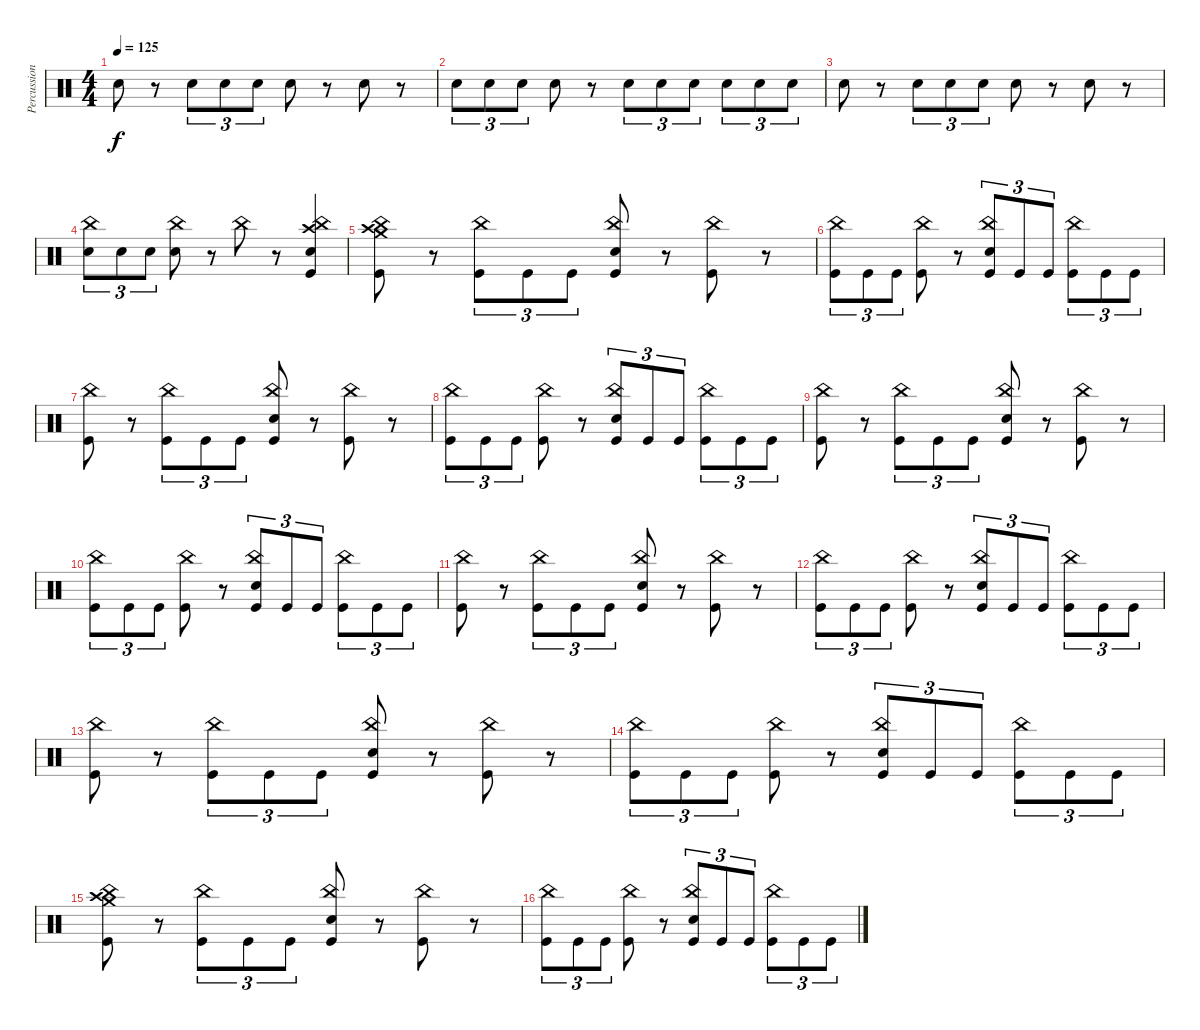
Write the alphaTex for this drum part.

\track ("Percussion" "Percussion") {instrument percussion}
\staff {score}
\articulation defaults
\ts (4 4)
\tempo 125
\clef neutral
\ks c "Electric Snare (hit)".8{dy f}
r.8 "Electric Snare (hit)".8{tu (3 2)} "Electric Snare (hit)".8{tu (3 2)} "Electric Snare (hit)".8{tu (3 2)} "Electric Snare (hit)".8 r.8 "Electric Snare (hit)".8 r.8 |
"Electric Snare (hit)".8{tu (3 2)} "Electric Snare (hit)".8{tu (3 2)} "Electric Snare (hit)".8{tu (3 2)} "Electric Snare (hit)".8 r.8 "Electric Snare (hit)".8{tu (3 2)} "Electric Snare (hit)".8{tu (3 2)} "Electric Snare (hit)".8{tu (3 2)} "Electric Snare (hit)".8{tu (3 2)} "Electric Snare (hit)".8{tu (3 2)} "Electric Snare (hit)".8{tu (3 2)} |
"Electric Snare (hit)".8 r.8 "Electric Snare (hit)".8{tu (3 2)} "Electric Snare (hit)".8{tu (3 2)} "Electric Snare (hit)".8{tu (3 2)} "Electric Snare (hit)".8 r.8 "Electric Snare (hit)".8 r.8 |
("China (hit)" "Electric Snare (hit)").8{tu (3 2)} "Electric Snare (hit)".8{tu (3 2)} "Electric Snare (hit)".8{tu (3 2)} ("China (hit)" "Electric Snare (hit)").8 r.8 "China (hit)".8 r.8 ("Crash high (hit)" "China (hit)" "Electric Snare (hit)" "Kick (hit)").4 |
("Crash medium (hit)" "Crash high (hit)" "China (hit)" "Kick (hit)").8 r.8 ("China (hit)" "Kick (hit)").8{tu (3 2)} "Kick (hit)".8{tu (3 2)} "Kick (hit)".8{tu (3 2)} ("China (hit)" "Electric Snare (hit)" "Kick (hit)").8 r.8 ("China (hit)" "Kick (hit)").8 r.8 |
("China (hit)" "Kick (hit)").8{tu (3 2)} "Kick (hit)".8{tu (3 2)} "Kick (hit)".8{tu (3 2)} ("China (hit)" "Kick (hit)").8 r.8 ("China (hit)" "Electric Snare (hit)" "Kick (hit)").8{tu (3 2)} "Kick (hit)".8{tu (3 2)} "Kick (hit)".8{tu (3 2)} ("China (hit)" "Kick (hit)").8{tu (3 2)} "Kick (hit)".8{tu (3 2)} "Kick (hit)".8{tu (3 2)} |
("China (hit)" "Kick (hit)").8 r.8 ("China (hit)" "Kick (hit)").8{tu (3 2)} "Kick (hit)".8{tu (3 2)} "Kick (hit)".8{tu (3 2)} ("China (hit)" "Electric Snare (hit)" "Kick (hit)").8 r.8 ("China (hit)" "Kick (hit)").8 r.8 |
("China (hit)" "Kick (hit)").8{tu (3 2)} "Kick (hit)".8{tu (3 2)} "Kick (hit)".8{tu (3 2)} ("China (hit)" "Kick (hit)").8 r.8 ("China (hit)" "Electric Snare (hit)" "Kick (hit)").8{tu (3 2)} "Kick (hit)".8{tu (3 2)} "Kick (hit)".8{tu (3 2)} ("China (hit)" "Kick (hit)").8{tu (3 2)} "Kick (hit)".8{tu (3 2)} "Kick (hit)".8{tu (3 2)} |
("China (hit)" "Kick (hit)").8 r.8 ("China (hit)" "Kick (hit)").8{tu (3 2)} "Kick (hit)".8{tu (3 2)} "Kick (hit)".8{tu (3 2)} ("China (hit)" "Electric Snare (hit)" "Kick (hit)").8 r.8 ("China (hit)" "Kick (hit)").8 r.8 |
("China (hit)" "Kick (hit)").8{tu (3 2)} "Kick (hit)".8{tu (3 2)} "Kick (hit)".8{tu (3 2)} ("China (hit)" "Kick (hit)").8 r.8 ("China (hit)" "Electric Snare (hit)" "Kick (hit)").8{tu (3 2)} "Kick (hit)".8{tu (3 2)} "Kick (hit)".8{tu (3 2)} ("China (hit)" "Kick (hit)").8{tu (3 2)} "Kick (hit)".8{tu (3 2)} "Kick (hit)".8{tu (3 2)} |
("China (hit)" "Kick (hit)").8 r.8 ("China (hit)" "Kick (hit)").8{tu (3 2)} "Kick (hit)".8{tu (3 2)} "Kick (hit)".8{tu (3 2)} ("China (hit)" "Electric Snare (hit)" "Kick (hit)").8 r.8 ("China (hit)" "Kick (hit)").8 r.8 |
("China (hit)" "Kick (hit)").8{tu (3 2)} "Kick (hit)".8{tu (3 2)} "Kick (hit)".8{tu (3 2)} ("China (hit)" "Kick (hit)").8 r.8 ("China (hit)" "Electric Snare (hit)" "Kick (hit)").8{tu (3 2)} "Kick (hit)".8{tu (3 2)} "Kick (hit)".8{tu (3 2)} ("China (hit)" "Kick (hit)").8{tu (3 2)} "Kick (hit)".8{tu (3 2)} "Kick (hit)".8{tu (3 2)} |
("China (hit)" "Kick (hit)").8 r.8 ("China (hit)" "Kick (hit)").8{tu (3 2)} "Kick (hit)".8{tu (3 2)} "Kick (hit)".8{tu (3 2)} ("China (hit)" "Electric Snare (hit)" "Kick (hit)").8 r.8 ("China (hit)" "Kick (hit)").8 r.8 |
("China (hit)" "Kick (hit)").8{tu (3 2)} "Kick (hit)".8{tu (3 2)} "Kick (hit)".8{tu (3 2)} ("China (hit)" "Kick (hit)").8 r.8 ("China (hit)" "Electric Snare (hit)" "Kick (hit)").8{tu (3 2)} "Kick (hit)".8{tu (3 2)} "Kick (hit)".8{tu (3 2)} ("China (hit)" "Kick (hit)").8{tu (3 2)} "Kick (hit)".8{tu (3 2)} "Kick (hit)".8{tu (3 2)} |
("Crash medium (hit)" "Crash high (hit)" "China (hit)" "Kick (hit)").8 r.8 ("China (hit)" "Kick (hit)").8{tu (3 2)} "Kick (hit)".8{tu (3 2)} "Kick (hit)".8{tu (3 2)} ("China (hit)" "Electric Snare (hit)" "Kick (hit)").8 r.8 ("China (hit)" "Kick (hit)").8 r.8 |
("China (hit)" "Kick (hit)").8{tu (3 2)} "Kick (hit)".8{tu (3 2)} "Kick (hit)".8{tu (3 2)} ("China (hit)" "Kick (hit)").8 r.8 ("China (hit)" "Electric Snare (hit)" "Kick (hit)").8{tu (3 2)} "Kick (hit)".8{tu (3 2)} "Kick (hit)".8{tu (3 2)} ("China (hit)" "Kick (hit)").8{tu (3 2)} "Kick (hit)".8{tu (3 2)} "Kick (hit)".8{tu (3 2)}
